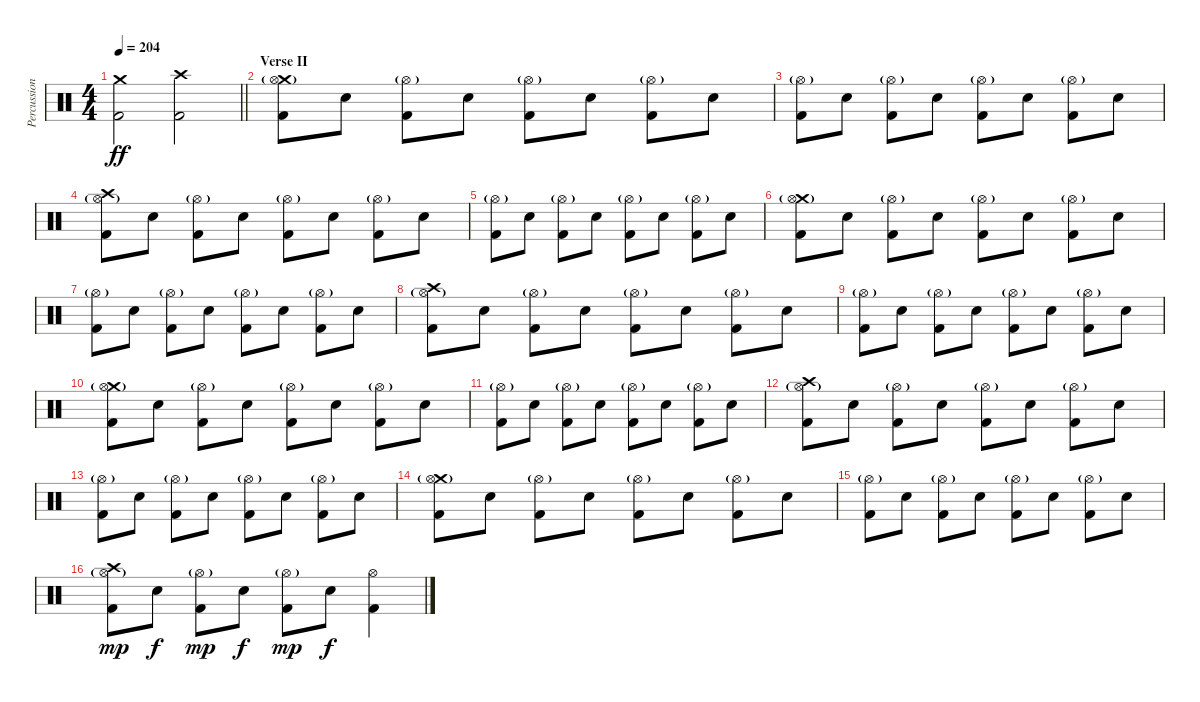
\track ("Percussion" "Percussion") {instrument percussion}
\staff {score}
\articulation defaults
\ts (4 4)
\tempo 204
\clef neutral
\barLineRight lightlight
\ks c
("Crash medium (hit)" "Kick (hit) 2").2{dy ff} ("Crash high (hit)" "Kick (hit) 2").2 |
\section ("" "Verse II")
("Crash medium (hit)" "Hi-Hat (open)"{g} "Kick (hit) 2").8 "Electric Snare (hit)".8 ("Hi-Hat (open)"{g} "Kick (hit) 2").8 "Electric Snare (hit)".8 ("Hi-Hat (open)"{g} "Kick (hit) 2").8 "Electric Snare (hit)".8 ("Hi-Hat (open)"{g} "Kick (hit) 2").8 "Electric Snare (hit)".8 |
("Hi-Hat (open)"{g} "Kick (hit) 2").8 "Electric Snare (hit)".8 ("Hi-Hat (open)"{g} "Kick (hit) 2").8 "Electric Snare (hit)".8 ("Hi-Hat (open)"{g} "Kick (hit) 2").8 "Electric Snare (hit)".8 ("Hi-Hat (open)"{g} "Kick (hit) 2").8 "Electric Snare (hit)".8 |
("Crash high (hit)" "Hi-Hat (open)"{g} "Kick (hit) 2").8 "Electric Snare (hit)".8 ("Hi-Hat (open)"{g} "Kick (hit) 2").8 "Electric Snare (hit)".8 ("Hi-Hat (open)"{g} "Kick (hit) 2").8 "Electric Snare (hit)".8 ("Hi-Hat (open)"{g} "Kick (hit) 2").8 "Electric Snare (hit)".8 |
("Hi-Hat (open)"{g} "Kick (hit) 2").8 "Electric Snare (hit)".8 ("Hi-Hat (open)"{g} "Kick (hit) 2").8 "Electric Snare (hit)".8 ("Hi-Hat (open)"{g} "Kick (hit) 2").8 "Electric Snare (hit)".8 ("Hi-Hat (open)"{g} "Kick (hit) 2").8 "Electric Snare (hit)".8 |
("Crash medium (hit)" "Hi-Hat (open)"{g} "Kick (hit) 2").8 "Electric Snare (hit)".8 ("Hi-Hat (open)"{g} "Kick (hit) 2").8 "Electric Snare (hit)".8 ("Hi-Hat (open)"{g} "Kick (hit) 2").8 "Electric Snare (hit)".8 ("Hi-Hat (open)"{g} "Kick (hit) 2").8 "Electric Snare (hit)".8 |
("Hi-Hat (open)"{g} "Kick (hit) 2").8 "Electric Snare (hit)".8 ("Hi-Hat (open)"{g} "Kick (hit) 2").8 "Electric Snare (hit)".8 ("Hi-Hat (open)"{g} "Kick (hit) 2").8 "Electric Snare (hit)".8 ("Hi-Hat (open)"{g} "Kick (hit) 2").8 "Electric Snare (hit)".8 |
("Crash high (hit)" "Hi-Hat (open)"{g} "Kick (hit) 2").8 "Electric Snare (hit)".8 ("Hi-Hat (open)"{g} "Kick (hit) 2").8 "Electric Snare (hit)".8 ("Hi-Hat (open)"{g} "Kick (hit) 2").8 "Electric Snare (hit)".8 ("Hi-Hat (open)"{g} "Kick (hit) 2").8 "Electric Snare (hit)".8 |
("Hi-Hat (open)"{g} "Kick (hit) 2").8 "Electric Snare (hit)".8 ("Hi-Hat (open)"{g} "Kick (hit) 2").8 "Electric Snare (hit)".8 ("Hi-Hat (open)"{g} "Kick (hit) 2").8 "Electric Snare (hit)".8 ("Hi-Hat (open)"{g} "Kick (hit) 2").8 "Electric Snare (hit)".8 |
("Crash medium (hit)" "Hi-Hat (open)"{g} "Kick (hit) 2").8 "Electric Snare (hit)".8 ("Hi-Hat (open)"{g} "Kick (hit) 2").8 "Electric Snare (hit)".8 ("Hi-Hat (open)"{g} "Kick (hit) 2").8 "Electric Snare (hit)".8 ("Hi-Hat (open)"{g} "Kick (hit) 2").8 "Electric Snare (hit)".8 |
("Hi-Hat (open)"{g} "Kick (hit) 2").8 "Electric Snare (hit)".8 ("Hi-Hat (open)"{g} "Kick (hit) 2").8 "Electric Snare (hit)".8 ("Hi-Hat (open)"{g} "Kick (hit) 2").8 "Electric Snare (hit)".8 ("Hi-Hat (open)"{g} "Kick (hit) 2").8 "Electric Snare (hit)".8 |
("Crash high (hit)" "Hi-Hat (open)"{g} "Kick (hit) 2").8 "Electric Snare (hit)".8 ("Hi-Hat (open)"{g} "Kick (hit) 2").8 "Electric Snare (hit)".8 ("Hi-Hat (open)"{g} "Kick (hit) 2").8 "Electric Snare (hit)".8 ("Hi-Hat (open)"{g} "Kick (hit) 2").8 "Electric Snare (hit)".8 |
("Hi-Hat (open)"{g} "Kick (hit) 2").8 "Electric Snare (hit)".8 ("Hi-Hat (open)"{g} "Kick (hit) 2").8 "Electric Snare (hit)".8 ("Hi-Hat (open)"{g} "Kick (hit) 2").8 "Electric Snare (hit)".8 ("Hi-Hat (open)"{g} "Kick (hit) 2").8 "Electric Snare (hit)".8 |
("Crash medium (hit)" "Hi-Hat (open)"{g} "Kick (hit) 2").8 "Electric Snare (hit)".8 ("Hi-Hat (open)"{g} "Kick (hit) 2").8 "Electric Snare (hit)".8 ("Hi-Hat (open)"{g} "Kick (hit) 2").8 "Electric Snare (hit)".8 ("Hi-Hat (open)"{g} "Kick (hit) 2").8 "Electric Snare (hit)".8 |
("Hi-Hat (open)"{g} "Kick (hit) 2").8 "Electric Snare (hit)".8 ("Hi-Hat (open)"{g} "Kick (hit) 2").8 "Electric Snare (hit)".8 ("Hi-Hat (open)"{g} "Kick (hit) 2").8 "Electric Snare (hit)".8 ("Hi-Hat (open)"{g} "Kick (hit) 2").8 "Electric Snare (hit)".8 |
("Crash high (hit)" "Hi-Hat (open)"{g} "Kick (hit) 2").8{dy mp} "Electric Snare (hit)".8{dy f} ("Hi-Hat (open)"{g} "Kick (hit) 2").8{dy mp} "Electric Snare (hit)".8{dy f} ("Hi-Hat (open)"{g} "Kick (hit) 2").8{dy mp} "Electric Snare (hit)".8{dy f} ("Hi-Hat (open)" "Kick (hit) 2").4
